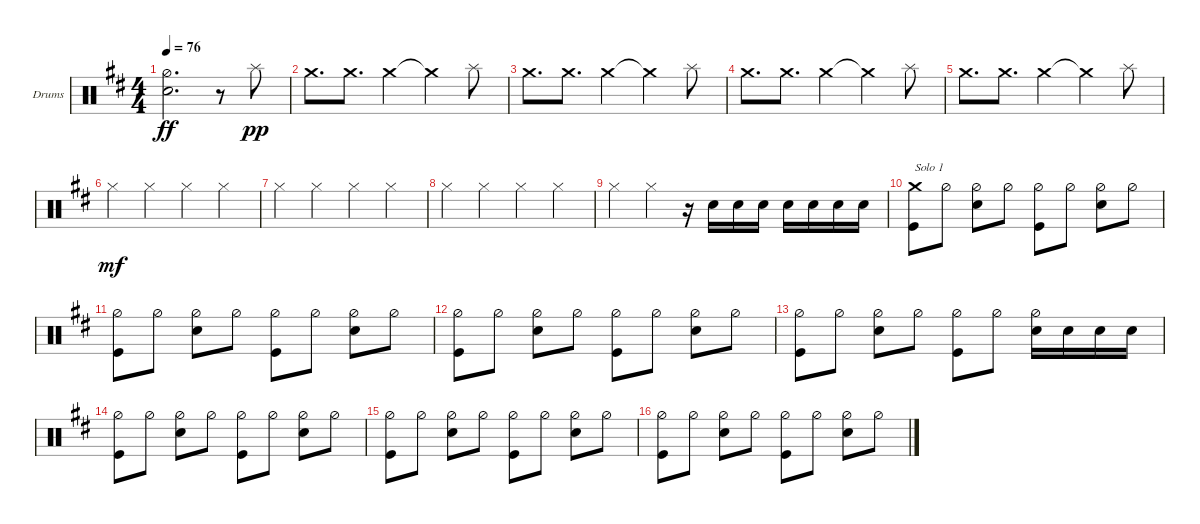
\defaultSystemsLayout 4
\bracketExtendMode groupsimilarinstruments
\firstSystemTrackNameOrientation horizontal
\otherSystemsTrackNameOrientation horizontal
\track ("Drums" "Drums") {instrument percussion}
\staff {score}
\articulation defaults
\ts (4 4)
\tempo 76
\clef neutral
\ks bminor
("Hi-Hat (half)" "Snare (hit) 2").2{d dy ff} r.8 "Splash (hit)".8{dy pp} |
"Crash medium (hit)".8{d} "Crash medium (hit)".8{d} "Crash medium (hit)".4 "Crash medium (hit)"{t}.4 "Splash (hit)".8 |
"Crash medium (hit)".8{d} "Crash medium (hit)".8{d} "Crash medium (hit)".4 "Crash medium (hit)"{t}.4 "Splash (hit)".8 |
"Crash medium (hit)".8{d} "Crash medium (hit)".8{d} "Crash medium (hit)".4 "Crash medium (hit)"{t}.4 "Splash (hit)".8 |
"Crash medium (hit)".8{d} "Crash medium (hit)".8{d} "Crash medium (hit)".4 "Crash medium (hit)"{t}.4 "Splash (hit)".8 |
"Hi-Hat (closed)".4{dy mf} "Hi-Hat (closed)".4 "Hi-Hat (closed)".4 "Hi-Hat (closed)".4 |
"Hi-Hat (closed)".4 "Hi-Hat (closed)".4 "Hi-Hat (closed)".4 "Hi-Hat (closed)".4 |
"Hi-Hat (closed)".4 "Hi-Hat (closed)".4 "Hi-Hat (closed)".4 "Hi-Hat (closed)".4 |
"Hi-Hat (closed)".4 "Hi-Hat (closed)".4 r.16 "Snare (hit) 2".16 "Snare (hit) 2".16 "Snare (hit) 2".16 "Snare (hit) 2".16 "Snare (hit) 2".16 "Snare (hit) 2".16 "Snare (hit) 2".16 |
("Kick (hit)" "Crash medium (hit)").8{txt "Solo 1"} "Hi-Hat (half)".8 ("Hi-Hat (half)" "Snare (hit) 2").8 "Hi-Hat (half)".8 ("Hi-Hat (half)" "Kick (hit)").8 "Hi-Hat (half)".8 ("Hi-Hat (half)" "Snare (hit) 2").8 "Hi-Hat (half)".8 |
("Hi-Hat (half)" "Kick (hit)").8 "Hi-Hat (half)".8 ("Hi-Hat (half)" "Snare (hit) 2").8 "Hi-Hat (half)".8 ("Hi-Hat (half)" "Kick (hit)").8 "Hi-Hat (half)".8 ("Hi-Hat (half)" "Snare (hit) 2").8 "Hi-Hat (half)".8 |
("Hi-Hat (half)" "Kick (hit)").8 "Hi-Hat (half)".8 ("Hi-Hat (half)" "Snare (hit) 2").8 "Hi-Hat (half)".8 ("Hi-Hat (half)" "Kick (hit)").8 "Hi-Hat (half)".8 ("Hi-Hat (half)" "Snare (hit) 2").8 "Hi-Hat (half)".8 |
("Hi-Hat (half)" "Kick (hit)").8 "Hi-Hat (half)".8 ("Hi-Hat (half)" "Snare (hit) 2").8 "Hi-Hat (half)".8 ("Hi-Hat (half)" "Kick (hit)").8 "Hi-Hat (half)".8 ("Hi-Hat (half)" "Snare (hit) 2").16 "Snare (hit) 2".16 "Snare (hit) 2".16 "Snare (hit) 2".16 |
("Hi-Hat (half)" "Kick (hit)").8 "Hi-Hat (half)".8 ("Hi-Hat (half)" "Snare (hit) 2").8 "Hi-Hat (half)".8 ("Hi-Hat (half)" "Kick (hit)").8 "Hi-Hat (half)".8 ("Hi-Hat (half)" "Snare (hit) 2").8 "Hi-Hat (half)".8 |
("Hi-Hat (half)" "Kick (hit)").8 "Hi-Hat (half)".8 ("Hi-Hat (half)" "Snare (hit) 2").8 "Hi-Hat (half)".8 ("Hi-Hat (half)" "Kick (hit)").8 "Hi-Hat (half)".8 ("Hi-Hat (half)" "Snare (hit) 2").8 "Hi-Hat (half)".8 |
("Hi-Hat (half)" "Kick (hit)").8 "Hi-Hat (half)".8 ("Hi-Hat (half)" "Snare (hit) 2").8 "Hi-Hat (half)".8 ("Hi-Hat (half)" "Kick (hit)").8 "Hi-Hat (half)".8 ("Hi-Hat (half)" "Snare (hit) 2").8 "Hi-Hat (half)".8
